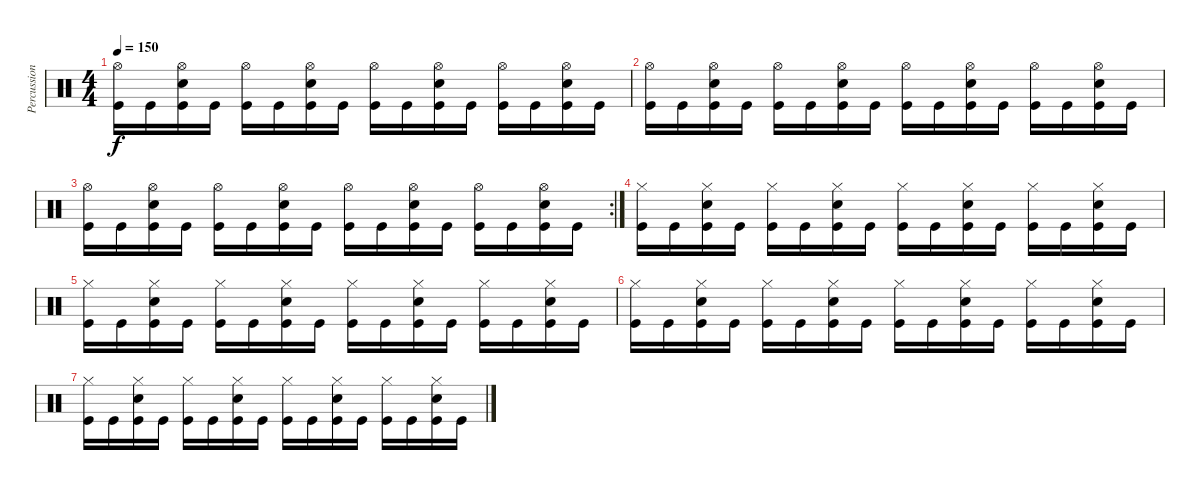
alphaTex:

\track ("Percussion" "Percussion") {instrument percussion}
\staff {score}
\articulation defaults
\ts (4 4)
\tempo 150
\clef neutral
\ks c
("Hi-Hat (open)" "Kick (hit)").16{dy f} "Kick (hit)".16 ("Hi-Hat (open)" "Snare (hit) 2" "Kick (hit)").16 "Kick (hit)".16 ("Hi-Hat (open)" "Kick (hit)").16 "Kick (hit)".16 ("Hi-Hat (open)" "Snare (hit) 2" "Kick (hit)").16 "Kick (hit)".16 ("Hi-Hat (open)" "Kick (hit)").16 "Kick (hit)".16 ("Hi-Hat (open)" "Snare (hit) 2" "Kick (hit)").16 "Kick (hit)".16 ("Hi-Hat (open)" "Kick (hit)").16 "Kick (hit)".16 ("Hi-Hat (open)" "Snare (hit) 2" "Kick (hit)").16 "Kick (hit)".16 |
("Hi-Hat (open)" "Kick (hit)").16 "Kick (hit)".16 ("Hi-Hat (open)" "Snare (hit) 2" "Kick (hit)").16 "Kick (hit)".16 ("Hi-Hat (open)" "Kick (hit)").16 "Kick (hit)".16 ("Hi-Hat (open)" "Snare (hit) 2" "Kick (hit)").16 "Kick (hit)".16 ("Hi-Hat (open)" "Kick (hit)").16 "Kick (hit)".16 ("Hi-Hat (open)" "Snare (hit) 2" "Kick (hit)").16 "Kick (hit)".16 ("Hi-Hat (open)" "Kick (hit)").16 "Kick (hit)".16 ("Hi-Hat (open)" "Snare (hit) 2" "Kick (hit)").16 "Kick (hit)".16 |
\rc 2
("Hi-Hat (open)" "Kick (hit)").16 "Kick (hit)".16 ("Hi-Hat (open)" "Snare (hit) 2" "Kick (hit)").16 "Kick (hit)".16 ("Hi-Hat (open)" "Kick (hit)").16 "Kick (hit)".16 ("Hi-Hat (open)" "Snare (hit) 2" "Kick (hit)").16 "Kick (hit)".16 ("Hi-Hat (open)" "Kick (hit)").16 "Kick (hit)".16 ("Hi-Hat (open)" "Snare (hit) 2" "Kick (hit)").16 "Kick (hit)".16 ("Hi-Hat (open)" "Kick (hit)").16 "Kick (hit)".16 ("Hi-Hat (open)" "Snare (hit) 2" "Kick (hit)").16 "Kick (hit)".16 |
("Hi-Hat (closed)" "Kick (hit)").16 "Kick (hit)".16 ("Hi-Hat (closed)" "Snare (hit) 2" "Kick (hit)").16 "Kick (hit)".16 ("Hi-Hat (closed)" "Kick (hit)").16 "Kick (hit)".16 ("Hi-Hat (closed)" "Snare (hit) 2" "Kick (hit)").16 "Kick (hit)".16 ("Hi-Hat (closed)" "Kick (hit)").16 "Kick (hit)".16 ("Hi-Hat (closed)" "Snare (hit) 2" "Kick (hit)").16 "Kick (hit)".16 ("Hi-Hat (closed)" "Kick (hit)").16 "Kick (hit)".16 ("Hi-Hat (closed)" "Snare (hit) 2" "Kick (hit)").16 "Kick (hit)".16 |
("Hi-Hat (closed)" "Kick (hit)").16 "Kick (hit)".16 ("Hi-Hat (closed)" "Snare (hit) 2" "Kick (hit)").16 "Kick (hit)".16 ("Hi-Hat (closed)" "Kick (hit)").16 "Kick (hit)".16 ("Hi-Hat (closed)" "Snare (hit) 2" "Kick (hit)").16 "Kick (hit)".16 ("Hi-Hat (closed)" "Kick (hit)").16 "Kick (hit)".16 ("Hi-Hat (closed)" "Snare (hit) 2" "Kick (hit)").16 "Kick (hit)".16 ("Hi-Hat (closed)" "Kick (hit)").16 "Kick (hit)".16 ("Hi-Hat (closed)" "Snare (hit) 2" "Kick (hit)").16 "Kick (hit)".16 |
("Hi-Hat (closed)" "Kick (hit)").16 "Kick (hit)".16 ("Hi-Hat (closed)" "Snare (hit) 2" "Kick (hit)").16 "Kick (hit)".16 ("Hi-Hat (closed)" "Kick (hit)").16 "Kick (hit)".16 ("Hi-Hat (closed)" "Snare (hit) 2" "Kick (hit)").16 "Kick (hit)".16 ("Hi-Hat (closed)" "Kick (hit)").16 "Kick (hit)".16 ("Hi-Hat (closed)" "Snare (hit) 2" "Kick (hit)").16 "Kick (hit)".16 ("Hi-Hat (closed)" "Kick (hit)").16 "Kick (hit)".16 ("Hi-Hat (closed)" "Snare (hit) 2" "Kick (hit)").16 "Kick (hit)".16 |
("Hi-Hat (closed)" "Kick (hit)").16 "Kick (hit)".16 ("Hi-Hat (closed)" "Snare (hit) 2" "Kick (hit)").16 "Kick (hit)".16 ("Hi-Hat (closed)" "Kick (hit)").16 "Kick (hit)".16 ("Hi-Hat (closed)" "Snare (hit) 2" "Kick (hit)").16 "Kick (hit)".16 ("Hi-Hat (closed)" "Kick (hit)").16 "Kick (hit)".16 ("Hi-Hat (closed)" "Snare (hit) 2" "Kick (hit)").16 "Kick (hit)".16 ("Hi-Hat (closed)" "Kick (hit)").16 "Kick (hit)".16 ("Hi-Hat (closed)" "Snare (hit) 2" "Kick (hit)").16 "Kick (hit)".16
